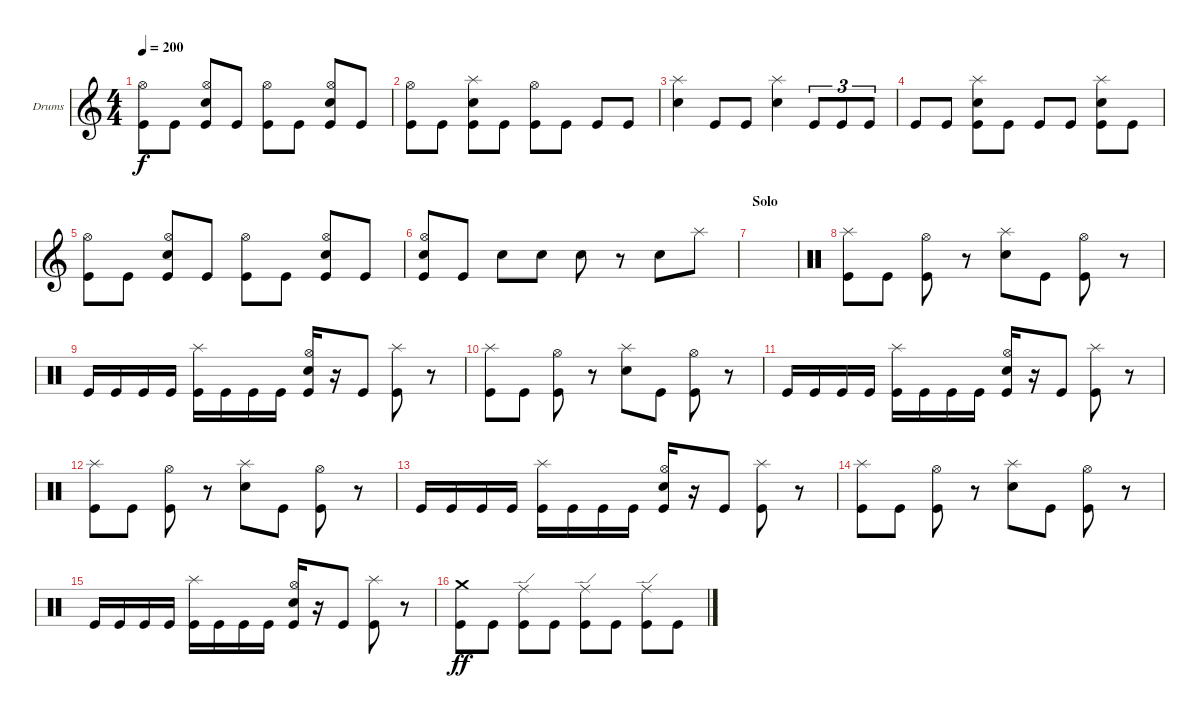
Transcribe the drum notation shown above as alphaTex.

\defaultSystemsLayout 4
\bracketExtendMode groupsimilarinstruments
\firstSystemTrackNameOrientation horizontal
\otherSystemsTrackNameOrientation horizontal
\track ("Drums" "Drums") {instrument percussion}
\staff {score}
\articulation defaults
\ts (4 4)
\tempo 200
\clef g2
\ks c
("Kick (hit)" "Hi-Hat (open)").8{dy f} "Kick (hit)".8 ("Kick (hit)" "Hi-Hat (open)" "Snare (hit) 2").8 "Kick (hit)".8 ("Kick (hit)" "Hi-Hat (open)").8 "Kick (hit)".8 ("Kick (hit)" "Hi-Hat (open)" "Snare (hit) 2").8 "Kick (hit)".8 |
("Kick (hit)" "Hi-Hat (open)").8 "Kick (hit)".8 ("Kick (hit)" "Snare (hit) 2" "Splash (hit)").8 "Kick (hit)".8 ("Kick (hit)" "Hi-Hat (open)").8 "Kick (hit)".8 "Kick (hit)".8 "Kick (hit)".8 |
("Snare (hit) 2" "Splash (hit)").4 "Kick (hit)".8 "Kick (hit)".8 ("Snare (hit) 2" "Splash (hit)").4 "Kick (hit)".8{tu (3 2)} "Kick (hit)".8{tu (3 2)} "Kick (hit)".8{tu (3 2)} |
"Kick (hit)".8 "Kick (hit)".8 ("Snare (hit) 2" "Splash (hit)" "Kick (hit)").8 "Kick (hit)".8 "Kick (hit)".8 "Kick (hit)".8 ("Kick (hit)" "Snare (hit) 2" "Splash (hit)").8 "Kick (hit)".8 |
("Kick (hit)" "Hi-Hat (open)").8 "Kick (hit)".8 ("Kick (hit)" "Hi-Hat (open)" "Snare (hit) 2").8 "Kick (hit)".8 ("Kick (hit)" "Hi-Hat (open)").8 "Kick (hit)".8 ("Kick (hit)" "Hi-Hat (open)" "Snare (hit) 2").8 "Kick (hit)".8 |
("Kick (hit)" "Hi-Hat (open)" "Snare (hit) 2").8 "Kick (hit)".8 "Snare (hit) 2".8 "Snare (hit) 2".8 "Snare (hit) 2".8 r.8 "Snare (hit) 2".8 "Splash (hit)".8 |
\section ("" "Solo")
|
\clef neutral
("Splash (hit)" "Kick (hit)").8 "Kick (hit)".8 ("Hi-Hat (open)" "Kick (hit)").8 r.8 ("Splash (hit)" "Snare (hit) 2").8 "Kick (hit)".8 ("Hi-Hat (open)" "Kick (hit)").8 r.8 |
"Kick (hit)".16 "Kick (hit)".16 "Kick (hit)".16 "Kick (hit)".16 ("Splash (hit)" "Kick (hit)").16 "Kick (hit)".16 "Kick (hit)".16 "Kick (hit)".16 ("Hi-Hat (open)" "Snare (hit) 2" "Kick (hit)").16 r.16 "Kick (hit)".8 ("Splash (hit)" "Kick (hit)").8 r.8 |
("Splash (hit)" "Kick (hit)").8 "Kick (hit)".8 ("Hi-Hat (open)" "Kick (hit)").8 r.8 ("Splash (hit)" "Snare (hit) 2").8 "Kick (hit)".8 ("Hi-Hat (open)" "Kick (hit)").8 r.8 |
"Kick (hit)".16 "Kick (hit)".16 "Kick (hit)".16 "Kick (hit)".16 ("Splash (hit)" "Kick (hit)").16 "Kick (hit)".16 "Kick (hit)".16 "Kick (hit)".16 ("Hi-Hat (open)" "Snare (hit) 2" "Kick (hit)").16 r.16 "Kick (hit)".8 ("Splash (hit)" "Kick (hit)").8 r.8 |
("Splash (hit)" "Kick (hit)").8 "Kick (hit)".8 ("Hi-Hat (open)" "Kick (hit)").8 r.8 ("Splash (hit)" "Snare (hit) 2").8 "Kick (hit)".8 ("Hi-Hat (open)" "Kick (hit)").8 r.8 |
"Kick (hit)".16 "Kick (hit)".16 "Kick (hit)".16 "Kick (hit)".16 ("Splash (hit)" "Kick (hit)").16 "Kick (hit)".16 "Kick (hit)".16 "Kick (hit)".16 ("Hi-Hat (open)" "Snare (hit) 2" "Kick (hit)").16 r.16 "Kick (hit)".8 ("Splash (hit)" "Kick (hit)").8 r.8 |
("Splash (hit)" "Kick (hit)").8 "Kick (hit)".8 ("Hi-Hat (open)" "Kick (hit)").8 r.8 ("Splash (hit)" "Snare (hit) 2").8 "Kick (hit)".8 ("Hi-Hat (open)" "Kick (hit)").8 r.8 |
"Kick (hit)".16 "Kick (hit)".16 "Kick (hit)".16 "Kick (hit)".16 ("Splash (hit)" "Kick (hit)").16 "Kick (hit)".16 "Kick (hit)".16 "Kick (hit)".16 ("Hi-Hat (open)" "Snare (hit) 2" "Kick (hit)").16 r.16 "Kick (hit)".8 ("Splash (hit)" "Kick (hit)").8 r.8 |
("Crash medium (hit)" "Kick (hit)").8{dy ff} "Kick (hit)".8 ("Ride (edge)" "Kick (hit)").8 "Kick (hit)".8 ("Ride (edge)" "Kick (hit)").8 "Kick (hit)".8 ("Ride (edge)" "Kick (hit)").8 "Kick (hit)".8
